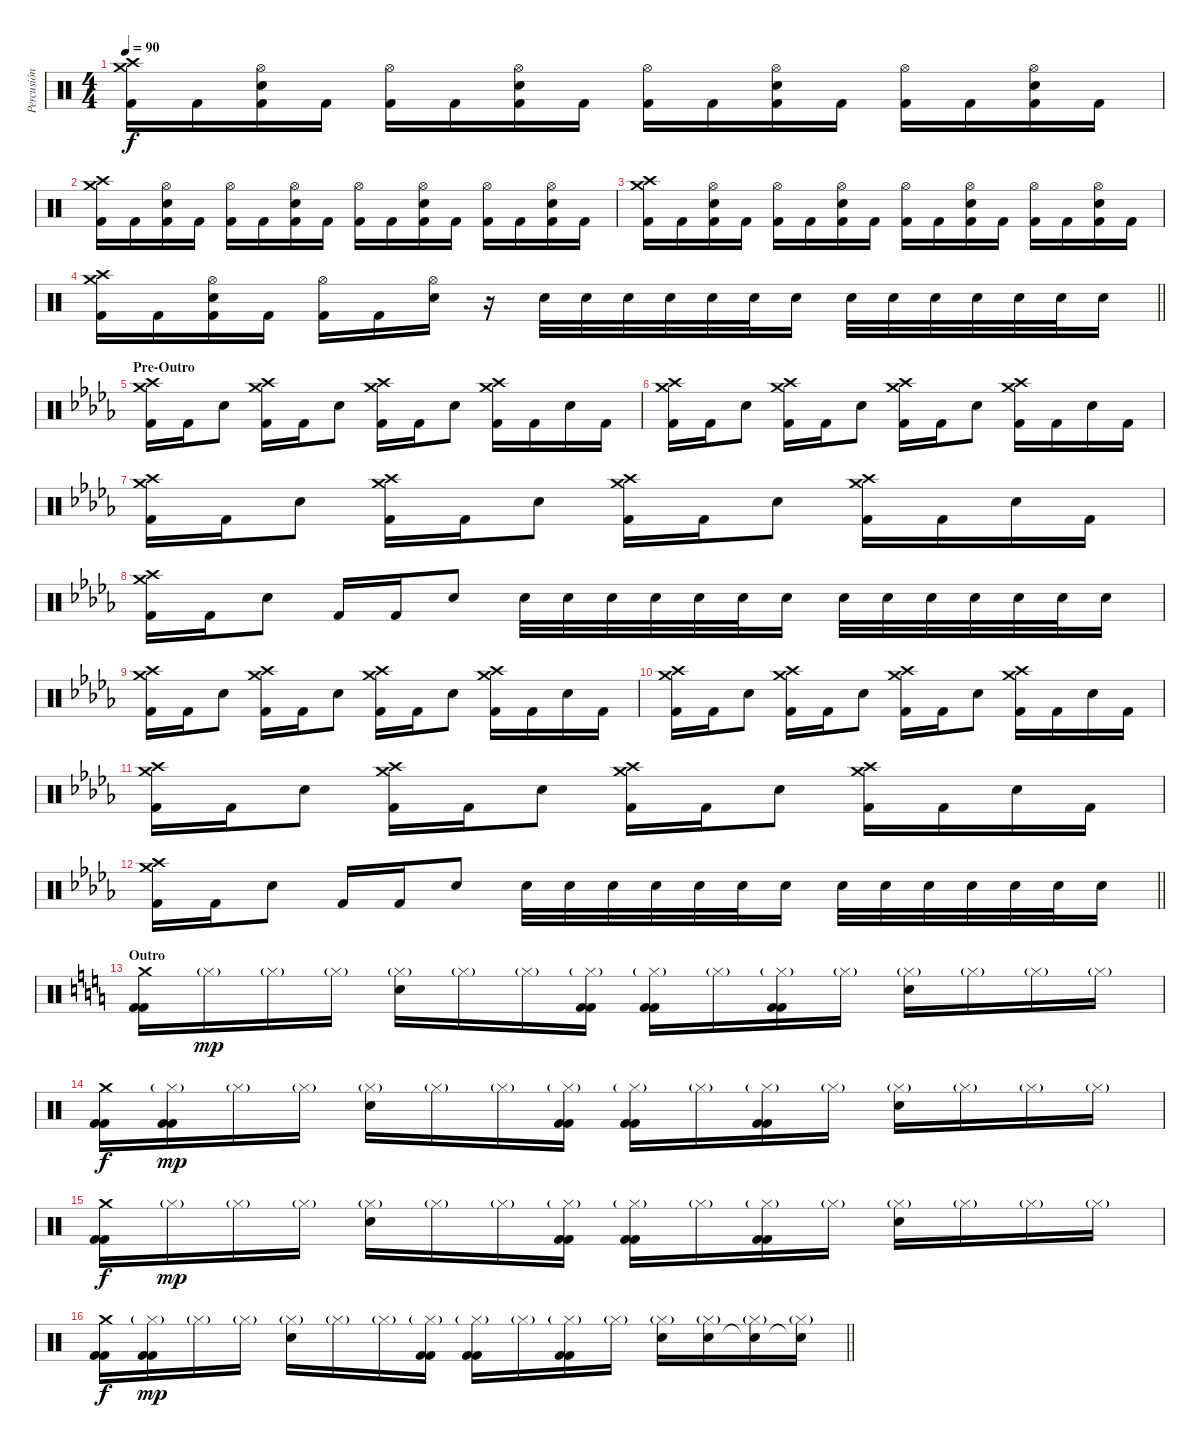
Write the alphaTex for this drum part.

\track ("Percusión" "Percusión") {instrument percussion}
\staff {score}
\articulation defaults
\ts (4 4)
\tempo 90
\clef neutral
\ks c
("Crash high (hit)" "Crash medium (hit)" "Kick (hit) 2").16{dy f} "Kick (hit) 2".16 ("Hi-Hat (open)" "Electric Snare (hit)" "Kick (hit) 2").16 "Kick (hit) 2".16 ("Hi-Hat (open)" "Kick (hit) 2").16 "Kick (hit) 2".16 ("Hi-Hat (open)" "Electric Snare (hit)" "Kick (hit) 2").16 "Kick (hit) 2".16 ("Hi-Hat (open)" "Kick (hit) 2").16 "Kick (hit) 2".16 ("Hi-Hat (open)" "Electric Snare (hit)" "Kick (hit) 2").16 "Kick (hit) 2".16 ("Hi-Hat (open)" "Kick (hit) 2").16 "Kick (hit) 2".16 ("Hi-Hat (open)" "Electric Snare (hit)" "Kick (hit) 2").16 "Kick (hit) 2".16 |
("Crash high (hit)" "Crash medium (hit)" "Kick (hit) 2").16 "Kick (hit) 2".16 ("Hi-Hat (open)" "Electric Snare (hit)" "Kick (hit) 2").16 "Kick (hit) 2".16 ("Hi-Hat (open)" "Kick (hit) 2").16 "Kick (hit) 2".16 ("Hi-Hat (open)" "Electric Snare (hit)" "Kick (hit) 2").16 "Kick (hit) 2".16 ("Hi-Hat (open)" "Kick (hit) 2").16 "Kick (hit) 2".16 ("Hi-Hat (open)" "Electric Snare (hit)" "Kick (hit) 2").16 "Kick (hit) 2".16 ("Hi-Hat (open)" "Kick (hit) 2").16 "Kick (hit) 2".16 ("Hi-Hat (open)" "Electric Snare (hit)" "Kick (hit) 2").16 "Kick (hit) 2".16 |
("Crash high (hit)" "Crash medium (hit)" "Kick (hit) 2").16 "Kick (hit) 2".16 ("Hi-Hat (open)" "Electric Snare (hit)" "Kick (hit) 2").16 "Kick (hit) 2".16 ("Hi-Hat (open)" "Kick (hit) 2").16 "Kick (hit) 2".16 ("Hi-Hat (open)" "Electric Snare (hit)" "Kick (hit) 2").16 "Kick (hit) 2".16 ("Hi-Hat (open)" "Kick (hit) 2").16 "Kick (hit) 2".16 ("Hi-Hat (open)" "Electric Snare (hit)" "Kick (hit) 2").16 "Kick (hit) 2".16 ("Hi-Hat (open)" "Kick (hit) 2").16 "Kick (hit) 2".16 ("Hi-Hat (open)" "Electric Snare (hit)" "Kick (hit) 2").16 "Kick (hit) 2".16 |
\barLineRight lightlight
("Crash high (hit)" "Crash medium (hit)" "Kick (hit) 2").16 "Kick (hit) 2".16 ("Hi-Hat (open)" "Electric Snare (hit)" "Kick (hit) 2").16 "Kick (hit) 2".16 ("Hi-Hat (open)" "Kick (hit) 2").16 "Kick (hit) 2".16 ("Hi-Hat (open)" "Electric Snare (hit)").16 r.16 "Snare (hit) 2".32 "Snare (hit) 2".32 "Snare (hit) 2".32 "Snare (hit) 2".32 "Snare (hit) 2".32 "Snare (hit) 2".32 "Snare (hit) 2".16 "Snare (hit) 2".32 "Snare (hit) 2".32 "Snare (hit) 2".32 "Snare (hit) 2".32 "Snare (hit) 2".32 "Snare (hit) 2".32 "Snare (hit) 2".16 |
\section ("" "Pre-Outro")
\ks db
("Crash high (hit)" "Crash medium (hit)" "Kick (hit) 2").16 "Kick (hit) 2".16 "Electric Snare (hit)".8 ("Crash high (hit)" "Crash medium (hit)" "Kick (hit) 2").16 "Kick (hit) 2".16 "Electric Snare (hit)".8 ("Crash high (hit)" "Crash medium (hit)" "Kick (hit) 2").16 "Kick (hit) 2".16 "Electric Snare (hit)".8 ("Crash high (hit)" "Crash medium (hit)" "Kick (hit) 2").16 "Kick (hit) 2".16 "Electric Snare (hit)".16 "Kick (hit) 2".16 |
("Crash high (hit)" "Crash medium (hit)" "Kick (hit) 2").16 "Kick (hit) 2".16 "Electric Snare (hit)".8 ("Crash high (hit)" "Crash medium (hit)" "Kick (hit) 2").16 "Kick (hit) 2".16 "Electric Snare (hit)".8 ("Crash high (hit)" "Crash medium (hit)" "Kick (hit) 2").16 "Kick (hit) 2".16 "Electric Snare (hit)".8 ("Crash high (hit)" "Crash medium (hit)" "Kick (hit) 2").16 "Kick (hit) 2".16 "Electric Snare (hit)".16 "Kick (hit) 2".16 |
("Crash high (hit)" "Crash medium (hit)" "Kick (hit) 2").16 "Kick (hit) 2".16 "Electric Snare (hit)".8 ("Crash high (hit)" "Crash medium (hit)" "Kick (hit) 2").16 "Kick (hit) 2".16 "Electric Snare (hit)".8 ("Crash high (hit)" "Crash medium (hit)" "Kick (hit) 2").16 "Kick (hit) 2".16 "Electric Snare (hit)".8 ("Crash high (hit)" "Crash medium (hit)" "Kick (hit) 2").16 "Kick (hit) 2".16 "Electric Snare (hit)".16 "Kick (hit) 2".16 |
("Crash high (hit)" "Crash medium (hit)" "Kick (hit) 2").16 "Kick (hit) 2".16 "Snare (hit) 2".8 "Kick (hit) 2".16 "Kick (hit) 2".16 "Snare (hit) 2".8 "Snare (hit) 2".32 "Snare (hit) 2".32 "Snare (hit) 2".32 "Snare (hit) 2".32 "Snare (hit) 2".32 "Snare (hit) 2".32 "Snare (hit) 2".16 "Snare (hit) 2".32 "Snare (hit) 2".32 "Snare (hit) 2".32 "Snare (hit) 2".32 "Snare (hit) 2".32 "Snare (hit) 2".32 "Snare (hit) 2".16 |
("Crash high (hit)" "Crash medium (hit)" "Kick (hit) 2").16 "Kick (hit) 2".16 "Snare (hit) 2".8 ("Crash high (hit)" "Crash medium (hit)" "Kick (hit) 2").16 "Kick (hit) 2".16 "Snare (hit) 2".8 ("Crash high (hit)" "Crash medium (hit)" "Kick (hit) 2").16 "Kick (hit) 2".16 "Snare (hit) 2".8 ("Crash high (hit)" "Crash medium (hit)" "Kick (hit) 2").16 "Kick (hit) 2".16 "Snare (hit) 2".16 "Kick (hit) 2".16 |
("Crash high (hit)" "Crash medium (hit)" "Kick (hit) 2").16 "Kick (hit) 2".16 "Snare (hit) 2".8 ("Crash high (hit)" "Crash medium (hit)" "Kick (hit) 2").16 "Kick (hit) 2".16 "Snare (hit) 2".8 ("Crash high (hit)" "Crash medium (hit)" "Kick (hit) 2").16 "Kick (hit) 2".16 "Snare (hit) 2".8 ("Crash high (hit)" "Crash medium (hit)" "Kick (hit) 2").16 "Kick (hit) 2".16 "Snare (hit) 2".16 "Kick (hit) 2".16 |
("Crash high (hit)" "Crash medium (hit)" "Kick (hit) 2").16 "Kick (hit) 2".16 "Snare (hit) 2".8 ("Crash high (hit)" "Crash medium (hit)" "Kick (hit) 2").16 "Kick (hit) 2".16 "Snare (hit) 2".8 ("Crash high (hit)" "Crash medium (hit)" "Kick (hit) 2").16 "Kick (hit) 2".16 "Snare (hit) 2".8 ("Crash high (hit)" "Crash medium (hit)" "Kick (hit) 2").16 "Kick (hit) 2".16 "Snare (hit) 2".16 "Kick (hit) 2".16 |
\barLineRight lightlight
("Crash high (hit)" "Crash medium (hit)" "Kick (hit) 2").16 "Kick (hit) 2".16 "Snare (hit) 2".8 "Kick (hit) 2".16 "Kick (hit) 2".16 "Snare (hit) 2".8 "Snare (hit) 2".32 "Snare (hit) 2".32 "Snare (hit) 2".32 "Snare (hit) 2".32 "Snare (hit) 2".32 "Snare (hit) 2".32 "Snare (hit) 2".16 "Snare (hit) 2".32 "Snare (hit) 2".32 "Snare (hit) 2".32 "Snare (hit) 2".32 "Snare (hit) 2".32 "Snare (hit) 2".32 "Snare (hit) 2".16 |
\section ("" "Outro")
\ks c
("Crash medium (hit)" "Kick (hit) 2" "Kick (hit) 2").16 "Hi-Hat (closed)"{g}.16{dy mp} "Hi-Hat (closed)"{g}.16 "Hi-Hat (closed)"{g}.16 ("Hi-Hat (closed)"{g} "Electric Snare (hit)").16 "Hi-Hat (closed)"{g}.16 "Hi-Hat (closed)"{g}.16 ("Hi-Hat (closed)"{g} "Kick (hit) 2" "Kick (hit) 2").16 ("Hi-Hat (closed)"{g} "Kick (hit) 2" "Kick (hit) 2").16 "Hi-Hat (closed)"{g}.16 ("Hi-Hat (closed)"{g} "Kick (hit) 2" "Kick (hit) 2").16 "Hi-Hat (closed)"{g}.16 ("Hi-Hat (closed)"{g} "Electric Snare (hit)").16 "Hi-Hat (closed)"{g}.16 "Hi-Hat (closed)"{g}.16 "Hi-Hat (closed)"{g}.16 |
("Crash medium (hit)" "Kick (hit) 2" "Kick (hit) 2").16{dy f} ("Hi-Hat (closed)"{g} "Kick (hit) 2" "Kick (hit) 2").16{dy mp} "Hi-Hat (closed)"{g}.16 "Hi-Hat (closed)"{g}.16 ("Hi-Hat (closed)"{g} "Electric Snare (hit)").16 "Hi-Hat (closed)"{g}.16 "Hi-Hat (closed)"{g}.16 ("Hi-Hat (closed)"{g} "Kick (hit) 2" "Kick (hit) 2").16 ("Hi-Hat (closed)"{g} "Kick (hit) 2" "Kick (hit) 2").16 "Hi-Hat (closed)"{g}.16 ("Hi-Hat (closed)"{g} "Kick (hit) 2" "Kick (hit) 2").16 "Hi-Hat (closed)"{g}.16 ("Hi-Hat (closed)"{g} "Electric Snare (hit)").16 "Hi-Hat (closed)"{g}.16 "Hi-Hat (closed)"{g}.16 "Hi-Hat (closed)"{g}.16 |
("Crash medium (hit)" "Kick (hit) 2" "Kick (hit) 2").16{dy f} "Hi-Hat (closed)"{g}.16{dy mp} "Hi-Hat (closed)"{g}.16 "Hi-Hat (closed)"{g}.16 ("Hi-Hat (closed)"{g} "Electric Snare (hit)").16 "Hi-Hat (closed)"{g}.16 "Hi-Hat (closed)"{g}.16 ("Hi-Hat (closed)"{g} "Kick (hit) 2" "Kick (hit) 2").16 ("Hi-Hat (closed)"{g} "Kick (hit) 2" "Kick (hit) 2").16 "Hi-Hat (closed)"{g}.16 ("Hi-Hat (closed)"{g} "Kick (hit) 2" "Kick (hit) 2").16 "Hi-Hat (closed)"{g}.16 ("Hi-Hat (closed)"{g} "Electric Snare (hit)").16 "Hi-Hat (closed)"{g}.16 "Hi-Hat (closed)"{g}.16 "Hi-Hat (closed)"{g}.16 |
\barLineRight lightlight
("Crash medium (hit)" "Kick (hit) 2" "Kick (hit) 2").16{dy f} ("Hi-Hat (closed)"{g} "Kick (hit) 2" "Kick (hit) 2").16{dy mp} "Hi-Hat (closed)"{g}.16 "Hi-Hat (closed)"{g}.16 ("Hi-Hat (closed)"{g} "Electric Snare (hit)").16 "Hi-Hat (closed)"{g}.16 "Hi-Hat (closed)"{g}.16 ("Hi-Hat (closed)"{g} "Kick (hit) 2" "Kick (hit) 2").16 ("Hi-Hat (closed)"{g} "Kick (hit) 2" "Kick (hit) 2").16 "Hi-Hat (closed)"{g}.16 ("Hi-Hat (closed)"{g} "Kick (hit) 2" "Kick (hit) 2").16 "Hi-Hat (closed)"{g}.16 ("Hi-Hat (closed)"{g} "Electric Snare (hit)").16 ("Hi-Hat (closed)"{g} "Electric Snare (hit)").16 ("Hi-Hat (closed)"{g} "Electric Snare (hit)"{t}).16 ("Hi-Hat (closed)"{g} "Electric Snare (hit)"{t}).16
